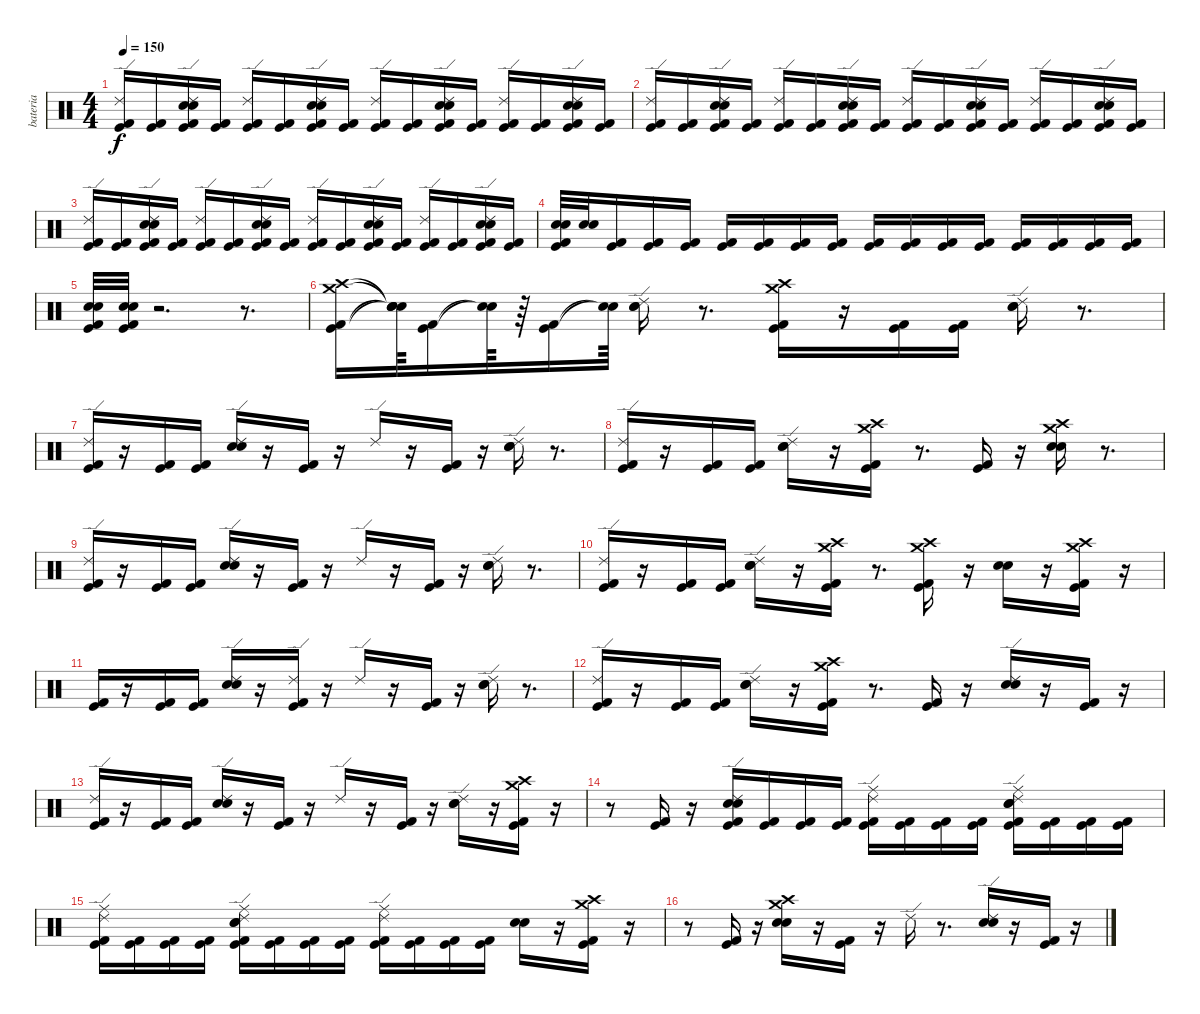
\track ("bateria" "bateria") {instrument percussion}
\staff {score}
\articulation defaults
\ts (4 4)
\tempo 150
\clef neutral
\ks c
("Ride (edge) 2" "Kick (hit) 2" "Kick (hit)").16{dy f} ("Kick (hit) 2" "Kick (hit)").16 ("Ride (edge) 2" "Electric Snare (hit)" "Snare (hit) 2" "Kick (hit) 2" "Kick (hit)").16 ("Kick (hit) 2" "Kick (hit)").16 ("Ride (edge) 2" "Kick (hit) 2" "Kick (hit)").16 ("Kick (hit) 2" "Kick (hit)").16 ("Ride (edge) 2" "Electric Snare (hit)" "Snare (hit) 2" "Kick (hit) 2" "Kick (hit)").16 ("Kick (hit) 2" "Kick (hit)").16 ("Ride (edge) 2" "Kick (hit) 2" "Kick (hit)").16 ("Kick (hit) 2" "Kick (hit)").16 ("Ride (edge) 2" "Electric Snare (hit)" "Snare (hit) 2" "Kick (hit) 2" "Kick (hit)").16 ("Kick (hit) 2" "Kick (hit)").16 ("Ride (edge) 2" "Kick (hit) 2" "Kick (hit)").16 ("Kick (hit) 2" "Kick (hit)").16 ("Ride (edge) 2" "Electric Snare (hit)" "Snare (hit) 2" "Kick (hit) 2" "Kick (hit)").16 ("Kick (hit) 2" "Kick (hit)").16 |
("Ride (edge) 2" "Kick (hit) 2" "Kick (hit)").16 ("Kick (hit) 2" "Kick (hit)").16 ("Ride (edge) 2" "Electric Snare (hit)" "Snare (hit) 2" "Kick (hit) 2" "Kick (hit)").16 ("Kick (hit) 2" "Kick (hit)").16 ("Ride (edge) 2" "Kick (hit) 2" "Kick (hit)").16 ("Kick (hit) 2" "Kick (hit)").16 ("Ride (edge) 2" "Electric Snare (hit)" "Snare (hit) 2" "Kick (hit) 2" "Kick (hit)").16 ("Kick (hit) 2" "Kick (hit)").16 ("Ride (edge) 2" "Kick (hit) 2" "Kick (hit)").16 ("Kick (hit) 2" "Kick (hit)").16 ("Ride (edge) 2" "Electric Snare (hit)" "Snare (hit) 2" "Kick (hit) 2" "Kick (hit)").16 ("Kick (hit) 2" "Kick (hit)").16 ("Ride (edge) 2" "Kick (hit) 2" "Kick (hit)").16 ("Kick (hit) 2" "Kick (hit)").16 ("Ride (edge) 2" "Electric Snare (hit)" "Snare (hit) 2" "Kick (hit) 2" "Kick (hit)").16 ("Kick (hit) 2" "Kick (hit)").16 |
("Ride (edge) 2" "Kick (hit) 2" "Kick (hit)").16 ("Kick (hit) 2" "Kick (hit)").16 ("Ride (edge) 2" "Electric Snare (hit)" "Snare (hit) 2" "Kick (hit) 2" "Kick (hit)").16 ("Kick (hit) 2" "Kick (hit)").16 ("Ride (edge) 2" "Kick (hit) 2" "Kick (hit)").16 ("Kick (hit) 2" "Kick (hit)").16 ("Ride (edge) 2" "Electric Snare (hit)" "Snare (hit) 2" "Kick (hit) 2" "Kick (hit)").16 ("Kick (hit) 2" "Kick (hit)").16 ("Ride (edge) 2" "Kick (hit) 2" "Kick (hit)").16 ("Kick (hit) 2" "Kick (hit)").16 ("Ride (edge) 2" "Electric Snare (hit)" "Snare (hit) 2" "Kick (hit) 2" "Kick (hit)").16 ("Kick (hit) 2" "Kick (hit)").16 ("Ride (edge) 2" "Kick (hit) 2" "Kick (hit)").16 ("Kick (hit) 2" "Kick (hit)").16 ("Ride (edge) 2" "Electric Snare (hit)" "Snare (hit) 2" "Kick (hit) 2" "Kick (hit)").16 ("Kick (hit) 2" "Kick (hit)").16 |
("Electric Snare (hit)" "Snare (hit) 2" "Kick (hit) 2" "Kick (hit)").32 ("Electric Snare (hit)" "Snare (hit) 2").32 ("Kick (hit) 2" "Kick (hit)").16 ("Kick (hit) 2" "Kick (hit)").16 ("Kick (hit) 2" "Kick (hit)").16 ("Kick (hit) 2" "Kick (hit)").16 ("Kick (hit) 2" "Kick (hit)").16 ("Kick (hit) 2" "Kick (hit)").16 ("Kick (hit) 2" "Kick (hit)").16 ("Kick (hit) 2" "Kick (hit)").16 ("Kick (hit) 2" "Kick (hit)").16 ("Kick (hit) 2" "Kick (hit)").16 ("Kick (hit) 2" "Kick (hit)").16 ("Kick (hit) 2" "Kick (hit)").16 ("Kick (hit) 2" "Kick (hit)").16 ("Kick (hit) 2" "Kick (hit)").16 ("Kick (hit) 2" "Kick (hit)").16 |
("Electric Snare (hit)" "Kick (hit) 2" "Kick (hit)" "Snare (hit) 2").32 ("Electric Snare (hit)" "Kick (hit) 2" "Kick (hit)" "Snare (hit) 2").32 r.2{d} r.8{d} |
("Crash high (hit)" "Crash medium (hit)" "Kick (hit) 2" "Kick (hit)").16 ("Snare (hit)"{t} "Snare (hit)"{t} "Snare (hit)"{t} "Snare (hit)"{t}).64 ("Kick (hit) 2" "Kick (hit)").16 ("Snare (hit)"{t} "Snare (hit)"{t}).64 r.64 ("Kick (hit) 2" "Kick (hit)").16 ("Snare (hit)"{t} "Snare (hit)"{t}).64 ("Ride (edge) 2" "Electric Snare (hit)" "Snare (hit) 2").16 r.8{d} ("Crash high (hit)" "Crash medium (hit)" "Kick (hit) 2" "Kick (hit)").16 r.16 ("Kick (hit)" "Kick (hit) 2").16 ("Kick (hit) 2" "Kick (hit)").16 ("Ride (edge) 2" "Electric Snare (hit)" "Snare (hit) 2").16 r.8{d} |
("Ride (edge) 2" "Kick (hit) 2" "Kick (hit)").16 r.16 ("Kick (hit) 2" "Kick (hit)").16 ("Kick (hit) 2" "Kick (hit)").16 ("Ride (edge) 2" "Electric Snare (hit)" "Snare (hit) 2").16 r.16 ("Kick (hit) 2" "Kick (hit)").16 r.16 "Ride (edge) 2".16 r.16 ("Kick (hit)" "Kick (hit) 2").16 r.16 ("Ride (edge) 2" "Electric Snare (hit)" "Snare (hit) 2").16 r.8{d} |
("Ride (edge) 2" "Kick (hit) 2" "Kick (hit)").16 r.16 ("Kick (hit) 2" "Kick (hit)").16 ("Kick (hit) 2" "Kick (hit)").16 ("Ride (edge) 2" "Electric Snare (hit)" "Snare (hit) 2").16 r.16 ("Crash high (hit)" "Kick (hit) 2" "Kick (hit)" "Crash medium (hit)").16 r.8{d} ("Kick (hit) 2" "Kick (hit)").16 r.16 ("Crash high (hit)" "Crash medium (hit)" "Electric Snare (hit)" "Snare (hit) 2").16 r.8{d} |
("Ride (edge) 2" "Kick (hit) 2" "Kick (hit)").16 r.16 ("Kick (hit) 2" "Kick (hit)").16 ("Kick (hit) 2" "Kick (hit)").16 ("Ride (edge) 2" "Electric Snare (hit)" "Snare (hit) 2").16 r.16 ("Kick (hit) 2" "Kick (hit)").16 r.16 "Ride (edge) 2".16 r.16 ("Kick (hit) 2" "Kick (hit)").16 r.16 ("Ride (edge) 2" "Electric Snare (hit)" "Snare (hit) 2").16 r.8{d} |
("Ride (edge) 2" "Kick (hit) 2" "Kick (hit)").16 r.16 ("Kick (hit) 2" "Kick (hit)").16 ("Kick (hit) 2" "Kick (hit)").16 ("Ride (edge) 2" "Electric Snare (hit)" "Snare (hit) 2").16 r.16 ("Crash high (hit)" "Crash medium (hit)" "Kick (hit) 2" "Kick (hit)").16 r.8{d} ("Crash high (hit)" "Crash medium (hit)" "Kick (hit) 2" "Kick (hit)").16 r.16 ("Electric Snare (hit)" "Snare (hit) 2").16 r.16 ("Crash high (hit)" "Crash medium (hit)" "Kick (hit) 2" "Kick (hit)").16 r.16 |
("Kick (hit) 2" "Kick (hit)").16 r.16 ("Kick (hit) 2" "Kick (hit)").16 ("Kick (hit) 2" "Kick (hit)").16 ("Ride (edge) 2" "Electric Snare (hit)" "Snare (hit) 2").16 r.16 ("Ride (edge) 2" "Kick (hit) 2" "Kick (hit)").16 r.16 "Ride (edge) 2".16 r.16 ("Kick (hit) 2" "Kick (hit)").16 r.16 ("Ride (edge) 2" "Electric Snare (hit)" "Snare (hit) 2").16 r.8{d} |
("Ride (edge) 2" "Kick (hit) 2" "Kick (hit)").16 r.16 ("Kick (hit) 2" "Kick (hit)").16 ("Kick (hit) 2" "Kick (hit)").16 ("Ride (edge) 2" "Electric Snare (hit)" "Snare (hit) 2").16 r.16 ("Crash high (hit)" "Crash medium (hit)" "Kick (hit) 2" "Kick (hit)").16 r.8{d} ("Kick (hit) 2" "Kick (hit)").16 r.16 ("Ride (edge) 2" "Electric Snare (hit)" "Snare (hit) 2").16 r.16 ("Kick (hit) 2" "Kick (hit)").16 r.16 |
("Ride (edge) 2" "Kick (hit) 2" "Kick (hit)").16 r.16 ("Kick (hit) 2" "Kick (hit)").16 ("Kick (hit) 2" "Kick (hit)").16 ("Ride (edge) 2" "Electric Snare (hit)" "Snare (hit) 2").16 r.16 ("Kick (hit) 2" "Kick (hit)").16 r.16 "Ride (edge) 2".16 r.16 ("Kick (hit) 2" "Kick (hit)").16 r.16 ("Ride (edge) 2" "Electric Snare (hit)" "Snare (hit) 2").16 r.16 ("Kick (hit) 2" "Kick (hit)" "Crash high (hit)" "Crash medium (hit)").16 r.16 |
r.8 ("Kick (hit) 2" "Kick (hit)").16 r.16 ("Ride (edge) 2" "Kick (hit) 2" "Kick (hit)" "Electric Snare (hit)" "Snare (hit) 2").16 ("Kick (hit) 2" "Kick (hit)").16 ("Kick (hit)" "Kick (hit) 2").16 ("Kick (hit) 2" "Kick (hit)").16 ("Ride (middle)" "Ride (edge) 2" "Kick (hit) 2" "Kick (hit)").16 ("Kick (hit) 2" "Kick (hit)").16 ("Kick (hit) 2" "Kick (hit)").16 ("Kick (hit) 2" "Kick (hit)").16 ("Ride (middle)" "Electric Snare (hit)" "Snare (hit) 2" "Ride (edge) 2" "Kick (hit) 2" "Kick (hit)").16 ("Kick (hit) 2" "Kick (hit)").16 ("Kick (hit) 2" "Kick (hit)").16 ("Kick (hit) 2" "Kick (hit)").16 |
("Ride (middle)" "Ride (edge) 2" "Kick (hit) 2" "Kick (hit)").16 ("Kick (hit) 2" "Kick (hit)").16 ("Kick (hit) 2" "Kick (hit)").16 ("Kick (hit) 2" "Kick (hit)").16 ("Ride (middle)" "Electric Snare (hit)" "Snare (hit) 2" "Ride (edge) 2" "Kick (hit) 2" "Kick (hit)").16 ("Kick (hit) 2" "Kick (hit)").16 ("Kick (hit) 2" "Kick (hit)").16 ("Kick (hit) 2" "Kick (hit)").16 ("Ride (middle)" "Ride (edge) 2" "Kick (hit) 2" "Kick (hit)").16 ("Kick (hit) 2" "Kick (hit)").16 ("Kick (hit) 2" "Kick (hit)").16 ("Kick (hit) 2" "Kick (hit)").16 ("Electric Snare (hit)" "Snare (hit) 2").16 r.16 ("Crash high (hit)" "Crash medium (hit)" "Kick (hit) 2" "Kick (hit)").16 r.16 |
r.8 ("Kick (hit) 2" "Kick (hit)").16 r.16 ("Crash high (hit)" "Crash medium (hit)" "Snare (hit) 2" "Electric Snare (hit)").16 r.16 ("Kick (hit) 2" "Kick (hit)").16 r.16 "Ride (edge) 2".16 r.8{d} ("Ride (edge) 2" "Electric Snare (hit)" "Snare (hit) 2").16 r.16 ("Kick (hit) 2" "Kick (hit)").16 r.16
